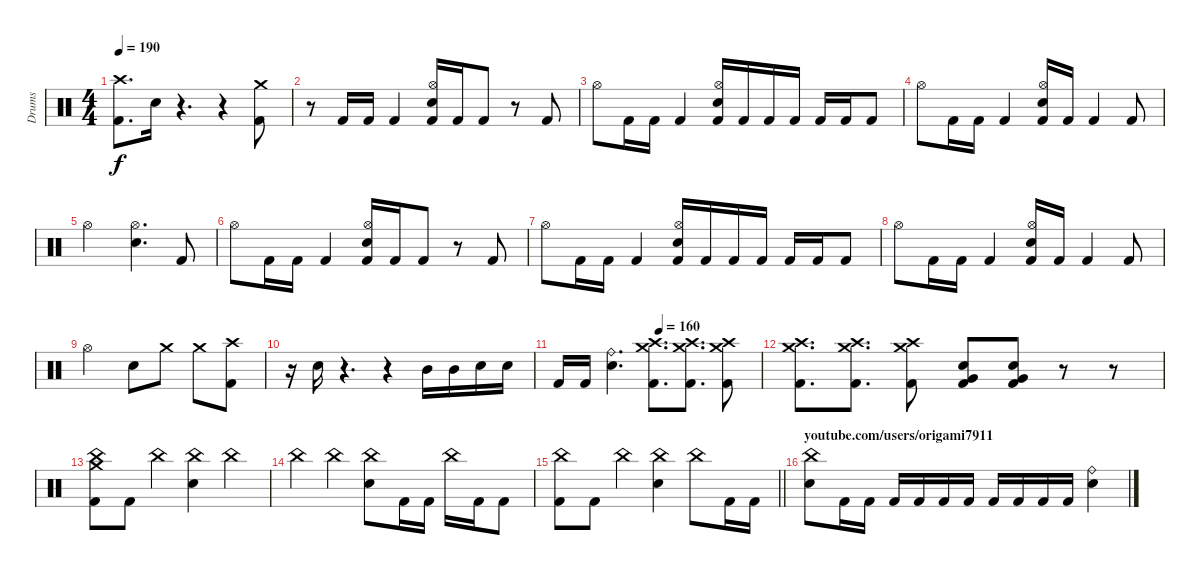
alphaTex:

\track ("Drums" "Drums") {instrument percussion}
\staff {score}
\articulation defaults
\ts (4 4)
\tempo 190
\clef neutral
\ks c
("Crash high (hit)" "Kick (hit) 2").8{d dy f} "Snare (hit)".16{volume 0} r.4{d} r.4 ("Crash medium (hit)" "Kick (hit) 2").8{volume 16} |
r.8 "Kick (hit) 2".16 "Kick (hit) 2".16 "Kick (hit) 2".4 ("Hi-Hat (open)" "Electric Snare (hit)" "Kick (hit) 2").16 "Kick (hit) 2".16 "Kick (hit) 2".8 r.8 "Kick (hit) 2".8 |
"Hi-Hat (open)".8 "Kick (hit) 2".16 "Kick (hit) 2".16 "Kick (hit) 2".4 ("Hi-Hat (open)" "Electric Snare (hit)" "Kick (hit) 2").16 "Kick (hit) 2".16 "Kick (hit) 2".16 "Kick (hit) 2".16 "Kick (hit) 2".16 "Kick (hit) 2".16 "Kick (hit) 2".8 |
"Hi-Hat (open)".8 "Kick (hit) 2".16 "Kick (hit) 2".16 "Kick (hit) 2".4 ("Hi-Hat (open)" "Electric Snare (hit)" "Kick (hit) 2").16 "Kick (hit) 2".16 "Kick (hit) 2".4 "Kick (hit) 2".8 |
"Hi-Hat (open)".2 ("Hi-Hat (open)" "Electric Snare (hit)").4{d} "Kick (hit) 2".8 |
"Hi-Hat (open)".8 "Kick (hit) 2".16 "Kick (hit) 2".16 "Kick (hit) 2".4 ("Hi-Hat (open)" "Electric Snare (hit)" "Kick (hit) 2").16 "Kick (hit) 2".16 "Kick (hit) 2".8 r.8 "Kick (hit) 2".8 |
"Hi-Hat (open)".8 "Kick (hit) 2".16 "Kick (hit) 2".16 "Kick (hit) 2".4 ("Hi-Hat (open)" "Electric Snare (hit)" "Kick (hit) 2").16 "Kick (hit) 2".16 "Kick (hit) 2".16 "Kick (hit) 2".16 "Kick (hit) 2".16 "Kick (hit) 2".16 "Kick (hit) 2".8 |
"Hi-Hat (open)".8 "Kick (hit) 2".16 "Kick (hit) 2".16 "Kick (hit) 2".4 ("Hi-Hat (open)" "Electric Snare (hit)" "Kick (hit) 2").16 "Kick (hit) 2".16 "Kick (hit) 2".4 "Kick (hit) 2".8 |
"Hi-Hat (open)".2 "Electric Snare (hit)".8 "Crash medium (hit)".8 "Crash medium (hit)".8 ("Crash high (hit)" "Kick (hit) 2").8 |
r.16 "Snare (hit)".16{volume 0} r.4{d} r.4 "Mid Tom (hit)".16{volume 16} "Mid Tom (hit)".16 "Electric Snare (hit)".16 "Electric Snare (hit)".16 |
\tempo (160 0.5)
"Kick (hit) 2".16 "Kick (hit) 2".16 ("Ride (bell)" "Electric Snare (hit)").4{d} ("Crash medium (hit)" "Crash high (hit)" "Kick (hit) 2").8{d} ("Crash medium (hit)" "Crash high (hit)" "Kick (hit) 2").8{d} ("Crash medium (hit)" "Crash high (hit)" "Kick (hit) 2").8 |
("Crash medium (hit)" "Crash high (hit)" "Kick (hit) 2").8{d} ("Crash medium (hit)" "Crash high (hit)" "Kick (hit) 2").8{d} ("Crash medium (hit)" "Crash high (hit)" "Kick (hit) 2").8 ("Very Low Tom (hit)" "Snare (hit) 2" "Kick (hit) 2").8 ("Very Low Tom (hit)" "Snare (hit) 2" "Kick (hit) 2").8 r.8 r.8 |
("Crash medium (hit)" "China (hit)" "Kick (hit) 2").8 "Kick (hit) 2".8 "China (hit)".4 ("China (hit)" "Electric Snare (hit)").4 "China (hit)".4 |
"China (hit)".4 "China (hit)".4 ("China (hit)" "Electric Snare (hit)").8 "Kick (hit) 2".16 "Kick (hit) 2".16 "China (hit)".16 "Kick (hit) 2".16 "Kick (hit) 2".8 |
\barLineRight lightlight
("China (hit)" "Kick (hit) 2").8 "Kick (hit) 2".8 "China (hit)".4 ("China (hit)" "Electric Snare (hit)").4 "China (hit)".8 "Kick (hit) 2".16 "Kick (hit) 2".16 |
\section ("" "youtube.com/users/origami7911")
("China (hit)" "Electric Snare (hit)").8 "Kick (hit) 2".16 "Kick (hit) 2".16 "Kick (hit) 2".16 "Kick (hit) 2".16 "Kick (hit) 2".16 "Kick (hit) 2".16 "Kick (hit) 2".16 "Kick (hit) 2".16 "Kick (hit) 2".16 "Kick (hit) 2".16 ("Ride (bell)" "Electric Snare (hit)").4
